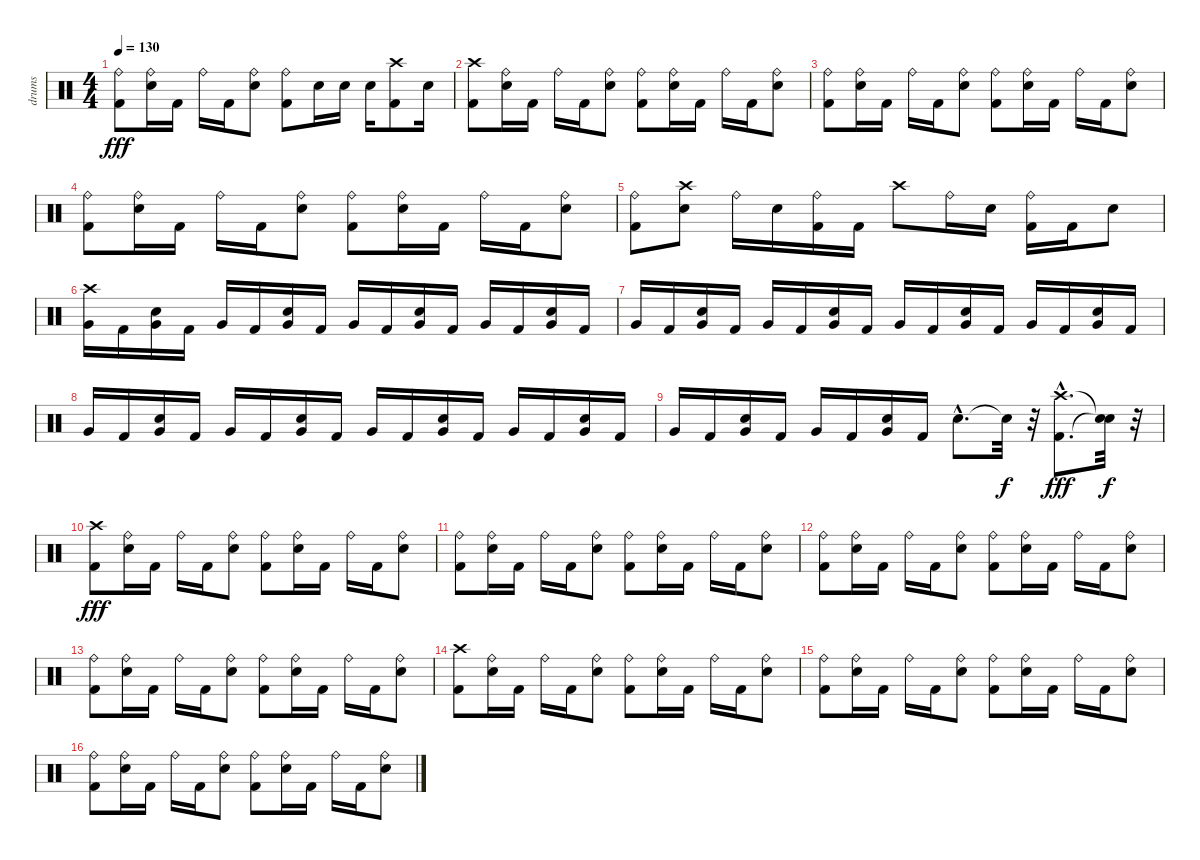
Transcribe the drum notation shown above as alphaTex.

\track ("drums" "drums") {instrument percussion}
\staff {score}
\articulation defaults
\ts (4 4)
\tempo 130
\clef neutral
\ks c
("Ride (bell)" "Kick (hit) 2").8{dy fff} ("Ride (bell)" "Snare (hit) 2").16 "Kick (hit) 2".16 "Ride (bell)".16 "Kick (hit) 2".16 ("Ride (bell)" "Snare (hit) 2").8 ("Ride (bell)" "Kick (hit) 2").8 "Snare (hit) 2".16 "Snare (hit) 2".16 "Snare (hit) 2".16 ("Crash high (hit)" "Kick (hit) 2").8 "Snare (hit) 2".16 |
("Crash high (hit)" "Kick (hit) 2").8 ("Ride (bell)" "Snare (hit) 2").16 "Kick (hit) 2".16 "Ride (bell)".16 "Kick (hit) 2".16 ("Ride (bell)" "Snare (hit) 2").8 ("Ride (bell)" "Kick (hit) 2").8 ("Ride (bell)" "Snare (hit) 2").16 "Kick (hit) 2".16 "Ride (bell)".16 "Kick (hit) 2".16 ("Ride (bell)" "Snare (hit) 2").8 |
("Ride (bell)" "Kick (hit) 2").8 ("Ride (bell)" "Snare (hit) 2").16 "Kick (hit) 2".16 "Ride (bell)".16 "Kick (hit) 2".16 ("Ride (bell)" "Snare (hit) 2").8 ("Ride (bell)" "Kick (hit) 2").8 ("Ride (bell)" "Snare (hit) 2").16 "Kick (hit) 2".16 "Ride (bell)".16 "Kick (hit) 2".16 ("Ride (bell)" "Snare (hit) 2").8 |
("Ride (bell)" "Kick (hit) 2").8 ("Ride (bell)" "Snare (hit) 2").16 "Kick (hit) 2".16 "Ride (bell)".16 "Kick (hit) 2".16 ("Ride (bell)" "Snare (hit) 2").8 ("Ride (bell)" "Kick (hit) 2").8 ("Ride (bell)" "Snare (hit) 2").16 "Kick (hit) 2".16 "Ride (bell)".16 "Kick (hit) 2".16 ("Ride (bell)" "Snare (hit) 2").8 |
("Ride (bell)" "Kick (hit) 2").8 ("Crash high (hit)" "Snare (hit) 2").8 "Ride (bell)".16 "Snare (hit) 2".16 ("Ride (bell)" "Kick (hit) 2").16 "Kick (hit) 2".16 "Crash high (hit)".8 "Ride (bell)".16 "Snare (hit) 2".16 ("Ride (bell)" "Kick (hit) 2").16 "Kick (hit) 2".16 "Snare (hit) 2".8 |
("Crash high (hit)" "Very Low Tom (hit)").16 "Kick (hit) 2".16 ("Snare (hit) 2" "Very Low Tom (hit)").16 "Kick (hit) 2".16 "Very Low Tom (hit)".16 "Kick (hit) 2".16 ("Very Low Tom (hit)" "Snare (hit) 2").16 "Kick (hit) 2".16 "Very Low Tom (hit)".16 "Kick (hit) 2".16 ("Snare (hit) 2" "Very Low Tom (hit)").16 "Kick (hit) 2".16 "Very Low Tom (hit)".16 "Kick (hit) 2".16 ("Very Low Tom (hit)" "Snare (hit) 2").16 "Kick (hit) 2".16 |
"Very Low Tom (hit)".16 "Kick (hit) 2".16 ("Snare (hit) 2" "Very Low Tom (hit)").16 "Kick (hit) 2".16 "Very Low Tom (hit)".16 "Kick (hit) 2".16 ("Very Low Tom (hit)" "Snare (hit) 2").16 "Kick (hit) 2".16 "Very Low Tom (hit)".16 "Kick (hit) 2".16 ("Snare (hit) 2" "Very Low Tom (hit)").16 "Kick (hit) 2".16 "Very Low Tom (hit)".16 "Kick (hit) 2".16 ("Very Low Tom (hit)" "Snare (hit) 2").16 "Kick (hit) 2".16 |
"Very Low Tom (hit)".16 "Kick (hit) 2".16 ("Snare (hit) 2" "Very Low Tom (hit)").16 "Kick (hit) 2".16 "Very Low Tom (hit)".16 "Kick (hit) 2".16 ("Very Low Tom (hit)" "Snare (hit) 2").16 "Kick (hit) 2".16 "Very Low Tom (hit)".16 "Kick (hit) 2".16 ("Snare (hit) 2" "Very Low Tom (hit)").16 "Kick (hit) 2".16 "Very Low Tom (hit)".16 "Kick (hit) 2".16 ("Very Low Tom (hit)" "Snare (hit) 2").16 "Kick (hit) 2".16 |
"Very Low Tom (hit)".16 "Kick (hit) 2".16 ("Snare (hit) 2" "Very Low Tom (hit)").16 "Kick (hit) 2".16 "Very Low Tom (hit)".16 "Kick (hit) 2".16 ("Very Low Tom (hit)" "Snare (hit) 2").16 "Kick (hit) 2".16 "Snare (hit) 2"{hac}.8{d} "Snare (hit)"{t}.32{dy f} r.32 ("Crash high (hit)"{hac} "Kick (hit) 2"{hac}).8{d dy fff} ("Snare (hit)"{t} "Snare (hit)"{t}).32{dy f} r.32 |
("Crash high (hit)" "Kick (hit) 2").8{dy fff} ("Ride (bell)" "Snare (hit) 2").16 "Kick (hit) 2".16 "Ride (bell)".16 "Kick (hit) 2".16 ("Ride (bell)" "Snare (hit) 2").8 ("Ride (bell)" "Kick (hit) 2").8 ("Ride (bell)" "Snare (hit) 2").16 "Kick (hit) 2".16 "Ride (bell)".16 "Kick (hit) 2".16 ("Ride (bell)" "Snare (hit) 2").8 |
("Ride (bell)" "Kick (hit) 2").8 ("Ride (bell)" "Snare (hit) 2").16 "Kick (hit) 2".16 "Ride (bell)".16 "Kick (hit) 2".16 ("Ride (bell)" "Snare (hit) 2").8 ("Ride (bell)" "Kick (hit) 2").8 ("Ride (bell)" "Snare (hit) 2").16 "Kick (hit) 2".16 "Ride (bell)".16 "Kick (hit) 2".16 ("Ride (bell)" "Snare (hit) 2").8 |
("Ride (bell)" "Kick (hit) 2").8 ("Ride (bell)" "Snare (hit) 2").16 "Kick (hit) 2".16 "Ride (bell)".16 "Kick (hit) 2".16 ("Ride (bell)" "Snare (hit) 2").8 ("Ride (bell)" "Kick (hit) 2").8 ("Ride (bell)" "Snare (hit) 2").16 "Kick (hit) 2".16 "Ride (bell)".16 "Kick (hit) 2".16 ("Ride (bell)" "Snare (hit) 2").8 |
("Ride (bell)" "Kick (hit) 2").8 ("Ride (bell)" "Snare (hit) 2").16 "Kick (hit) 2".16 "Ride (bell)".16 "Kick (hit) 2".16 ("Ride (bell)" "Snare (hit) 2").8 ("Ride (bell)" "Kick (hit) 2").8 ("Ride (bell)" "Snare (hit) 2").16 "Kick (hit) 2".16 "Ride (bell)".16 "Kick (hit) 2".16 ("Ride (bell)" "Snare (hit) 2").8 |
("Crash high (hit)" "Kick (hit) 2").8 ("Ride (bell)" "Snare (hit) 2").16 "Kick (hit) 2".16 "Ride (bell)".16 "Kick (hit) 2".16 ("Ride (bell)" "Snare (hit) 2").8 ("Ride (bell)" "Kick (hit) 2").8 ("Ride (bell)" "Snare (hit) 2").16 "Kick (hit) 2".16 "Ride (bell)".16 "Kick (hit) 2".16 ("Ride (bell)" "Snare (hit) 2").8 |
("Ride (bell)" "Kick (hit) 2").8 ("Ride (bell)" "Snare (hit) 2").16 "Kick (hit) 2".16 "Ride (bell)".16 "Kick (hit) 2".16 ("Ride (bell)" "Snare (hit) 2").8 ("Ride (bell)" "Kick (hit) 2").8 ("Ride (bell)" "Snare (hit) 2").16 "Kick (hit) 2".16 "Ride (bell)".16 "Kick (hit) 2".16 ("Ride (bell)" "Snare (hit) 2").8 |
("Ride (bell)" "Kick (hit) 2").8 ("Ride (bell)" "Snare (hit) 2").16 "Kick (hit) 2".16 "Ride (bell)".16 "Kick (hit) 2".16 ("Ride (bell)" "Snare (hit) 2").8 ("Ride (bell)" "Kick (hit) 2").8 ("Ride (bell)" "Snare (hit) 2").16 "Kick (hit) 2".16 "Ride (bell)".16 "Kick (hit) 2".16 ("Ride (bell)" "Snare (hit) 2").8
